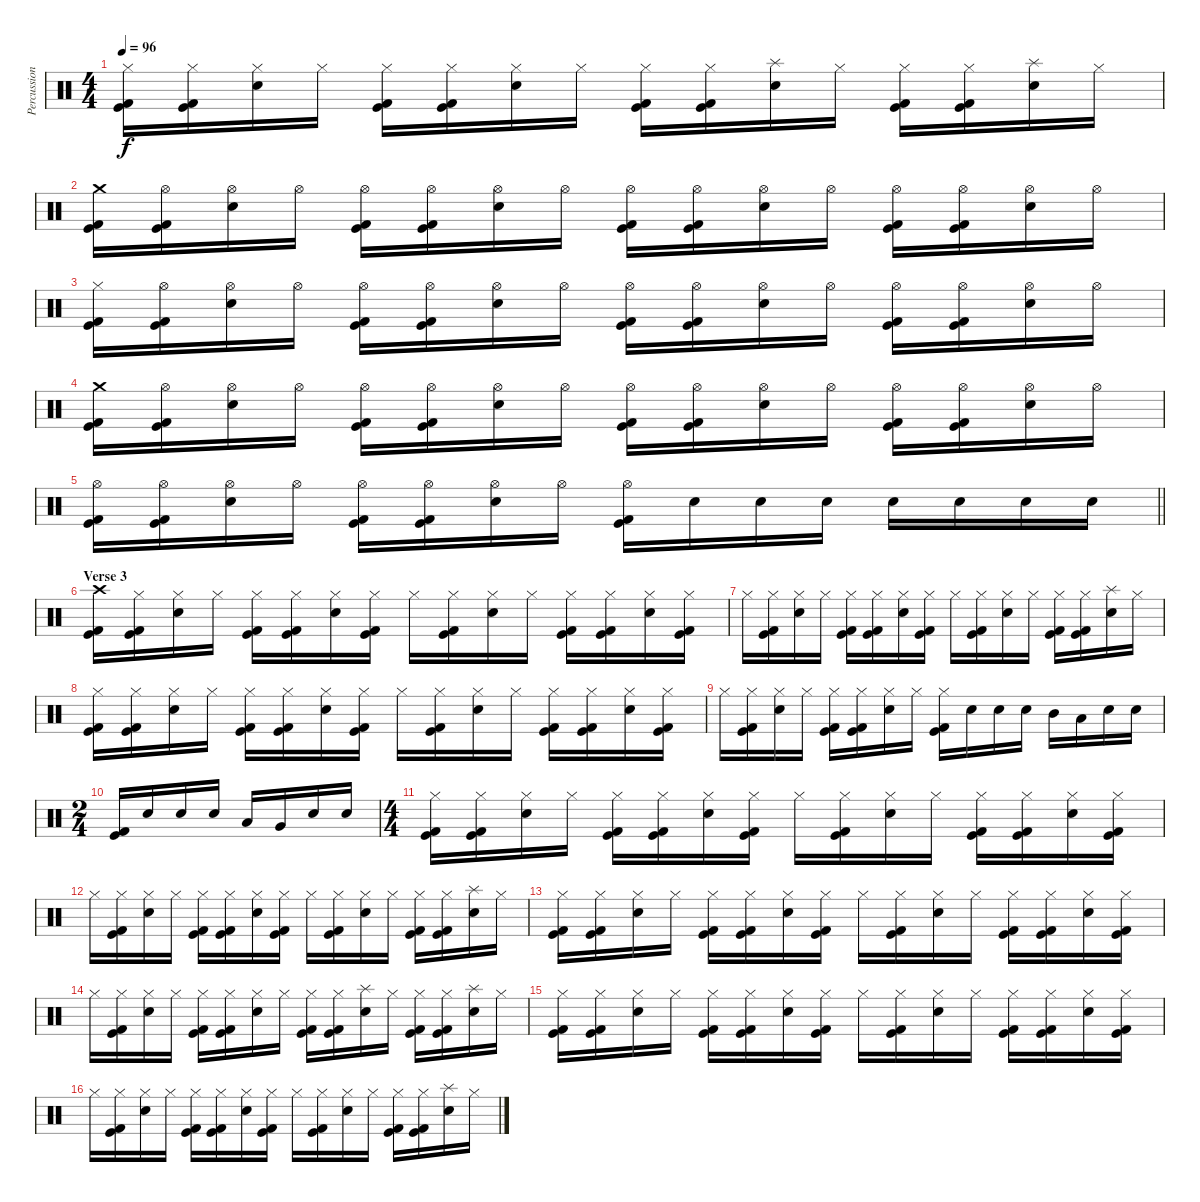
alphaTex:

\track ("Percussion" "Percussion") {instrument percussion}
\staff {score}
\articulation defaults
\ts (4 4)
\tempo 96
\clef neutral
\ks c
("Hi-Hat (closed)" "Kick (hit)" "Kick (hit) 2").16{dy f} ("Hi-Hat (closed)" "Kick (hit)" "Kick (hit) 2").16 ("Hi-Hat (closed)" "Electric Snare (hit)").16 "Hi-Hat (closed)".16 ("Hi-Hat (closed)" "Kick (hit)" "Kick (hit) 2").16 ("Hi-Hat (closed)" "Kick (hit)" "Kick (hit) 2").16 ("Hi-Hat (closed)" "Electric Snare (hit)").16 "Hi-Hat (closed)".16 ("Hi-Hat (closed)" "Kick (hit)" "Kick (hit) 2").16 ("Hi-Hat (closed)" "Kick (hit)" "Kick (hit) 2").16 ("Splash (hit)" "Electric Snare (hit)").16 "Hi-Hat (closed)".16 ("Hi-Hat (closed)" "Kick (hit)" "Kick (hit) 2").16 ("Hi-Hat (closed)" "Kick (hit)" "Kick (hit) 2").16 ("Splash (hit)" "Electric Snare (hit)").16 "Hi-Hat (closed)".16 |
("Crash medium (hit)" "Kick (hit)" "Kick (hit) 2").16 ("Hi-Hat (open)" "Kick (hit)" "Kick (hit) 2").16 ("Hi-Hat (open)" "Electric Snare (hit)").16 "Hi-Hat (open)".16 ("Hi-Hat (open)" "Kick (hit)" "Kick (hit) 2").16 ("Hi-Hat (open)" "Kick (hit)" "Kick (hit) 2").16 ("Hi-Hat (open)" "Electric Snare (hit)").16 "Hi-Hat (open)".16 ("Hi-Hat (open)" "Kick (hit)" "Kick (hit) 2").16 ("Hi-Hat (open)" "Kick (hit)" "Kick (hit) 2").16 ("Hi-Hat (open)" "Electric Snare (hit)").16 "Hi-Hat (open)".16 ("Hi-Hat (open)" "Kick (hit)" "Kick (hit) 2").16 ("Hi-Hat (open)" "Kick (hit)" "Kick (hit) 2").16 ("Hi-Hat (open)" "Electric Snare (hit)").16 "Hi-Hat (open)".16 |
("Hi-Hat (closed)" "Kick (hit)" "Kick (hit) 2").16 ("Hi-Hat (open)" "Kick (hit)" "Kick (hit) 2").16 ("Hi-Hat (open)" "Electric Snare (hit)").16 "Hi-Hat (open)".16 ("Hi-Hat (open)" "Kick (hit)" "Kick (hit) 2").16 ("Hi-Hat (open)" "Kick (hit)" "Kick (hit) 2").16 ("Hi-Hat (open)" "Electric Snare (hit)").16 "Hi-Hat (open)".16 ("Hi-Hat (open)" "Kick (hit)" "Kick (hit) 2").16 ("Hi-Hat (open)" "Kick (hit)" "Kick (hit) 2").16 ("Hi-Hat (open)" "Electric Snare (hit)").16 "Hi-Hat (open)".16 ("Hi-Hat (open)" "Kick (hit)" "Kick (hit) 2").16 ("Hi-Hat (open)" "Kick (hit)" "Kick (hit) 2").16 ("Hi-Hat (open)" "Electric Snare (hit)").16 "Hi-Hat (open)".16 |
("Crash medium (hit)" "Kick (hit)" "Kick (hit) 2").16 ("Hi-Hat (open)" "Kick (hit)" "Kick (hit) 2").16 ("Hi-Hat (open)" "Electric Snare (hit)").16 "Hi-Hat (open)".16 ("Hi-Hat (open)" "Kick (hit)" "Kick (hit) 2").16 ("Hi-Hat (open)" "Kick (hit)" "Kick (hit) 2").16 ("Hi-Hat (open)" "Electric Snare (hit)").16 "Hi-Hat (open)".16 ("Hi-Hat (open)" "Kick (hit)" "Kick (hit) 2").16 ("Hi-Hat (open)" "Kick (hit)" "Kick (hit) 2").16 ("Hi-Hat (open)" "Electric Snare (hit)").16 "Hi-Hat (open)".16 ("Hi-Hat (open)" "Kick (hit)" "Kick (hit) 2").16 ("Hi-Hat (open)" "Kick (hit)" "Kick (hit) 2").16 ("Hi-Hat (open)" "Electric Snare (hit)").16 "Hi-Hat (open)".16 |
\barLineRight lightlight
("Hi-Hat (open)" "Kick (hit)" "Kick (hit) 2").16 ("Hi-Hat (open)" "Kick (hit)" "Kick (hit) 2").16 ("Hi-Hat (open)" "Electric Snare (hit)").16 "Hi-Hat (open)".16 ("Hi-Hat (open)" "Kick (hit)" "Kick (hit) 2").16 ("Hi-Hat (open)" "Kick (hit)" "Kick (hit) 2").16 ("Hi-Hat (open)" "Electric Snare (hit)").16 "Hi-Hat (open)".16 ("Hi-Hat (open)" "Kick (hit)" "Kick (hit) 2").16 "Electric Snare (hit)".16 "Electric Snare (hit)".16 "Electric Snare (hit)".16 "Electric Snare (hit)".16 "Electric Snare (hit)".16 "Electric Snare (hit)".16 "Electric Snare (hit)".16 |
\section ("" "Verse 3")
("Crash high (hit)" "Kick (hit)" "Kick (hit) 2").16 ("Hi-Hat (closed)" "Kick (hit)" "Kick (hit) 2").16 ("Hi-Hat (closed)" "Electric Snare (hit)").16 "Hi-Hat (closed)".16 ("Hi-Hat (closed)" "Kick (hit)" "Kick (hit) 2").16 ("Hi-Hat (closed)" "Kick (hit)" "Kick (hit) 2").16 ("Hi-Hat (closed)" "Electric Snare (hit)").16 ("Hi-Hat (closed)" "Kick (hit)" "Kick (hit) 2").16 "Hi-Hat (closed)".16 ("Hi-Hat (closed)" "Kick (hit)" "Kick (hit) 2").16 ("Hi-Hat (closed)" "Electric Snare (hit)").16 "Hi-Hat (closed)".16 ("Hi-Hat (closed)" "Kick (hit)" "Kick (hit) 2").16 ("Hi-Hat (closed)" "Kick (hit)" "Kick (hit) 2").16 ("Hi-Hat (closed)" "Electric Snare (hit)").16 ("Hi-Hat (closed)" "Kick (hit)" "Kick (hit) 2").16 |
"Hi-Hat (closed)".16 ("Hi-Hat (closed)" "Kick (hit)" "Kick (hit) 2").16 ("Hi-Hat (closed)" "Electric Snare (hit)").16 "Hi-Hat (closed)".16 ("Hi-Hat (closed)" "Kick (hit)" "Kick (hit) 2").16 ("Hi-Hat (closed)" "Kick (hit)" "Kick (hit) 2").16 ("Hi-Hat (closed)" "Electric Snare (hit)").16 ("Hi-Hat (closed)" "Kick (hit)" "Kick (hit) 2").16 "Hi-Hat (closed)".16 ("Hi-Hat (closed)" "Kick (hit)" "Kick (hit) 2").16 ("Hi-Hat (closed)" "Electric Snare (hit)").16 "Hi-Hat (closed)".16 ("Hi-Hat (closed)" "Kick (hit)" "Kick (hit) 2").16 ("Hi-Hat (closed)" "Kick (hit)" "Kick (hit) 2").16 ("Splash (hit)" "Electric Snare (hit)").16 "Hi-Hat (closed)".16 |
("Hi-Hat (closed)" "Kick (hit)" "Kick (hit) 2").16 ("Hi-Hat (closed)" "Kick (hit)" "Kick (hit) 2").16 ("Hi-Hat (closed)" "Electric Snare (hit)").16 "Hi-Hat (closed)".16 ("Hi-Hat (closed)" "Kick (hit)" "Kick (hit) 2").16 ("Hi-Hat (closed)" "Kick (hit)" "Kick (hit) 2").16 ("Hi-Hat (closed)" "Electric Snare (hit)").16 ("Hi-Hat (closed)" "Kick (hit)" "Kick (hit) 2").16 "Hi-Hat (closed)".16 ("Hi-Hat (closed)" "Kick (hit)" "Kick (hit) 2").16 ("Hi-Hat (closed)" "Electric Snare (hit)").16 "Hi-Hat (closed)".16 ("Hi-Hat (closed)" "Kick (hit)" "Kick (hit) 2").16 ("Hi-Hat (closed)" "Kick (hit)" "Kick (hit) 2").16 ("Hi-Hat (closed)" "Electric Snare (hit)").16 ("Hi-Hat (closed)" "Kick (hit)" "Kick (hit) 2").16 |
"Hi-Hat (closed)".16 ("Hi-Hat (closed)" "Kick (hit)" "Kick (hit) 2").16 ("Hi-Hat (closed)" "Electric Snare (hit)").16 "Hi-Hat (closed)".16 ("Hi-Hat (closed)" "Kick (hit)" "Kick (hit) 2").16 ("Hi-Hat (closed)" "Kick (hit)" "Kick (hit) 2").16 ("Hi-Hat (closed)" "Electric Snare (hit)").16 "Hi-Hat (closed)".16 ("Hi-Hat (closed)" "Kick (hit)" "Kick (hit) 2").16 "Electric Snare (hit)".16 "Electric Snare (hit)".16 "Electric Snare (hit)".16 "Mid Tom (hit)".16 "Low Tom (hit)".16 "Electric Snare (hit)".16 "Electric Snare (hit)".16 |
\ts (2 4)
("Kick (hit)" "Kick (hit) 2").16 "Electric Snare (hit)".16 "Electric Snare (hit)".16 "Electric Snare (hit)".16 "Low Tom (hit)".16 "Very Low Tom (hit)".16 "Electric Snare (hit)".16 "Electric Snare (hit)".16 |
\ts (4 4)
("Hi-Hat (closed)" "Kick (hit)" "Kick (hit) 2").16 ("Hi-Hat (closed)" "Kick (hit)" "Kick (hit) 2").16 ("Hi-Hat (closed)" "Electric Snare (hit)").16 "Hi-Hat (closed)".16 ("Hi-Hat (closed)" "Kick (hit)" "Kick (hit) 2").16 ("Hi-Hat (closed)" "Kick (hit)" "Kick (hit) 2").16 ("Hi-Hat (closed)" "Electric Snare (hit)").16 ("Hi-Hat (closed)" "Kick (hit)" "Kick (hit) 2").16 "Hi-Hat (closed)".16 ("Hi-Hat (closed)" "Kick (hit)" "Kick (hit) 2").16 ("Hi-Hat (closed)" "Electric Snare (hit)").16 "Hi-Hat (closed)".16 ("Hi-Hat (closed)" "Kick (hit)" "Kick (hit) 2").16 ("Hi-Hat (closed)" "Kick (hit)" "Kick (hit) 2").16 ("Hi-Hat (closed)" "Electric Snare (hit)").16 ("Hi-Hat (closed)" "Kick (hit)" "Kick (hit) 2").16 |
"Hi-Hat (closed)".16 ("Hi-Hat (closed)" "Kick (hit)" "Kick (hit) 2").16 ("Hi-Hat (closed)" "Electric Snare (hit)").16 "Hi-Hat (closed)".16 ("Hi-Hat (closed)" "Kick (hit)" "Kick (hit) 2").16 ("Hi-Hat (closed)" "Kick (hit)" "Kick (hit) 2").16 ("Hi-Hat (closed)" "Electric Snare (hit)").16 ("Hi-Hat (closed)" "Kick (hit)" "Kick (hit) 2").16 "Hi-Hat (closed)".16 ("Hi-Hat (closed)" "Kick (hit)" "Kick (hit) 2").16 ("Hi-Hat (closed)" "Electric Snare (hit)").16 "Hi-Hat (closed)".16 ("Hi-Hat (closed)" "Kick (hit)" "Kick (hit) 2").16 ("Hi-Hat (closed)" "Kick (hit)" "Kick (hit) 2").16 ("Splash (hit)" "Electric Snare (hit)").16 "Hi-Hat (closed)".16 |
("Hi-Hat (closed)" "Kick (hit)" "Kick (hit) 2").16 ("Hi-Hat (closed)" "Kick (hit)" "Kick (hit) 2").16 ("Hi-Hat (closed)" "Electric Snare (hit)").16 "Hi-Hat (closed)".16 ("Hi-Hat (closed)" "Kick (hit)" "Kick (hit) 2").16 ("Hi-Hat (closed)" "Kick (hit)" "Kick (hit) 2").16 ("Hi-Hat (closed)" "Electric Snare (hit)").16 ("Hi-Hat (closed)" "Kick (hit)" "Kick (hit) 2").16 "Hi-Hat (closed)".16 ("Hi-Hat (closed)" "Kick (hit)" "Kick (hit) 2").16 ("Hi-Hat (closed)" "Electric Snare (hit)").16 "Hi-Hat (closed)".16 ("Hi-Hat (closed)" "Kick (hit)" "Kick (hit) 2").16 ("Hi-Hat (closed)" "Kick (hit)" "Kick (hit) 2").16 ("Hi-Hat (closed)" "Electric Snare (hit)").16 ("Hi-Hat (closed)" "Kick (hit)" "Kick (hit) 2").16 |
"Hi-Hat (closed)".16 ("Hi-Hat (closed)" "Kick (hit)" "Kick (hit) 2").16 ("Hi-Hat (closed)" "Electric Snare (hit)").16 "Hi-Hat (closed)".16 ("Hi-Hat (closed)" "Kick (hit)" "Kick (hit) 2").16 ("Hi-Hat (closed)" "Kick (hit)" "Kick (hit) 2").16 ("Hi-Hat (closed)" "Electric Snare (hit)").16 "Hi-Hat (closed)".16 ("Hi-Hat (closed)" "Kick (hit)" "Kick (hit) 2").16 ("Hi-Hat (closed)" "Kick (hit)" "Kick (hit) 2").16 ("Splash (hit)" "Electric Snare (hit)").16 "Hi-Hat (closed)".16 ("Hi-Hat (closed)" "Kick (hit)" "Kick (hit) 2").16 ("Hi-Hat (closed)" "Kick (hit)" "Kick (hit) 2").16 ("Splash (hit)" "Electric Snare (hit)").16 "Hi-Hat (closed)".16 |
("Hi-Hat (closed)" "Kick (hit)" "Kick (hit) 2").16 ("Hi-Hat (closed)" "Kick (hit)" "Kick (hit) 2").16 ("Hi-Hat (closed)" "Electric Snare (hit)").16 "Hi-Hat (closed)".16 ("Hi-Hat (closed)" "Kick (hit)" "Kick (hit) 2").16 ("Hi-Hat (closed)" "Kick (hit)" "Kick (hit) 2").16 ("Hi-Hat (closed)" "Electric Snare (hit)").16 ("Hi-Hat (closed)" "Kick (hit)" "Kick (hit) 2").16 "Hi-Hat (closed)".16 ("Hi-Hat (closed)" "Kick (hit)" "Kick (hit) 2").16 ("Hi-Hat (closed)" "Electric Snare (hit)").16 "Hi-Hat (closed)".16 ("Hi-Hat (closed)" "Kick (hit)" "Kick (hit) 2").16 ("Hi-Hat (closed)" "Kick (hit)" "Kick (hit) 2").16 ("Hi-Hat (closed)" "Electric Snare (hit)").16 ("Hi-Hat (closed)" "Kick (hit)" "Kick (hit) 2").16 |
"Hi-Hat (closed)".16 ("Hi-Hat (closed)" "Kick (hit)" "Kick (hit) 2").16 ("Hi-Hat (closed)" "Electric Snare (hit)").16 "Hi-Hat (closed)".16 ("Hi-Hat (closed)" "Kick (hit)" "Kick (hit) 2").16 ("Hi-Hat (closed)" "Kick (hit)" "Kick (hit) 2").16 ("Hi-Hat (closed)" "Electric Snare (hit)").16 ("Hi-Hat (closed)" "Kick (hit)" "Kick (hit) 2").16 "Hi-Hat (closed)".16 ("Hi-Hat (closed)" "Kick (hit)" "Kick (hit) 2").16 ("Hi-Hat (closed)" "Electric Snare (hit)").16 "Hi-Hat (closed)".16 ("Hi-Hat (closed)" "Kick (hit)" "Kick (hit) 2").16 ("Hi-Hat (closed)" "Kick (hit)" "Kick (hit) 2").16 ("Splash (hit)" "Electric Snare (hit)").16 "Hi-Hat (closed)".16
